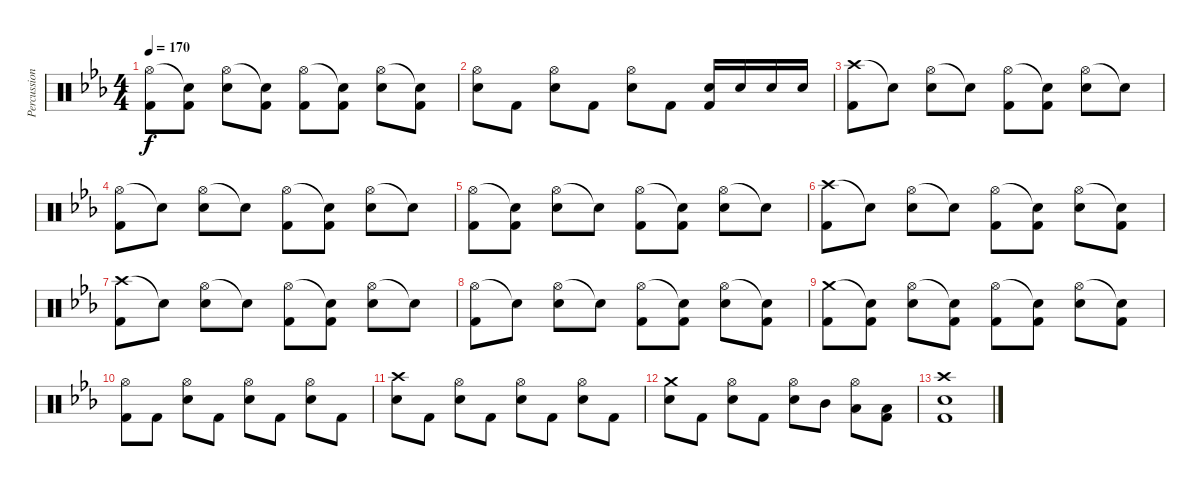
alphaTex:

\track ("Percussion" "Percussion") {instrument percussion}
\staff {score}
\articulation defaults
\ts (4 4)
\tempo 170
\clef neutral
\ks cminor
("Hi-Hat (open)" "Kick (hit) 2").8{dy f} ("Snare (hit)"{t} "Kick (hit) 2").8 ("Hi-Hat (open)" "Electric Snare (hit)").8 ("Snare (hit)"{t} "Kick (hit) 2").8 ("Hi-Hat (open)" "Kick (hit) 2").8 ("Snare (hit)"{t} "Kick (hit) 2").8 ("Hi-Hat (open)" "Electric Snare (hit)").8 ("Snare (hit)"{t} "Kick (hit) 2").8 |
("Hi-Hat (open)" "Electric Snare (hit)").8 "Kick (hit) 2".8 ("Hi-Hat (open)" "Electric Snare (hit)").8 "Kick (hit) 2".8 ("Hi-Hat (open)" "Electric Snare (hit)").8 "Kick (hit) 2".8 ("Electric Snare (hit)" "Kick (hit) 2").16 "Electric Snare (hit)".16 "Electric Snare (hit)".16 "Electric Snare (hit)".16 |
("Crash high (hit)" "Kick (hit) 2").8 "Snare (hit)"{t}.8 ("Hi-Hat (open)" "Electric Snare (hit)").8 "Snare (hit)"{t}.8 ("Hi-Hat (open)" "Kick (hit) 2").8 ("Snare (hit)"{t} "Kick (hit) 2").8 ("Hi-Hat (open)" "Electric Snare (hit)").8 "Snare (hit)"{t}.8 |
("Hi-Hat (open)" "Kick (hit) 2").8 "Snare (hit)"{t}.8 ("Hi-Hat (open)" "Electric Snare (hit)").8 "Snare (hit)"{t}.8 ("Hi-Hat (open)" "Kick (hit) 2").8 ("Snare (hit)"{t} "Kick (hit) 2").8 ("Hi-Hat (open)" "Electric Snare (hit)").8 "Snare (hit)"{t}.8 |
("Hi-Hat (open)" "Kick (hit) 2").8 ("Snare (hit)"{t} "Kick (hit) 2").8 ("Hi-Hat (open)" "Electric Snare (hit)").8 "Snare (hit)"{t}.8 ("Hi-Hat (open)" "Kick (hit) 2").8 ("Snare (hit)"{t} "Kick (hit) 2").8 ("Hi-Hat (open)" "Electric Snare (hit)").8 "Snare (hit)"{t}.8 |
("Crash high (hit)" "Kick (hit) 2").8 "Snare (hit)"{t}.8 ("Hi-Hat (open)" "Electric Snare (hit)").8 "Snare (hit)"{t}.8 ("Hi-Hat (open)" "Kick (hit) 2").8 ("Snare (hit)"{t} "Kick (hit) 2").8 ("Hi-Hat (open)" "Electric Snare (hit)").8 ("Snare (hit)"{t} "Kick (hit) 2").8 |
("Crash high (hit)" "Kick (hit) 2").8 "Snare (hit)"{t}.8 ("Hi-Hat (open)" "Electric Snare (hit)").8 "Snare (hit)"{t}.8 ("Hi-Hat (open)" "Kick (hit) 2").8 ("Snare (hit)"{t} "Kick (hit) 2").8 ("Hi-Hat (open)" "Electric Snare (hit)").8 "Snare (hit)"{t}.8 |
("Hi-Hat (open)" "Kick (hit) 2").8 "Snare (hit)"{t}.8 ("Hi-Hat (open)" "Electric Snare (hit)").8 "Snare (hit)"{t}.8 ("Hi-Hat (open)" "Kick (hit) 2").8 ("Snare (hit)"{t} "Kick (hit) 2").8 ("Hi-Hat (open)" "Electric Snare (hit)").8 ("Snare (hit)"{t} "Kick (hit) 2").8 |
("Crash medium (hit)" "Kick (hit) 2").8 ("Snare (hit)"{t} "Kick (hit) 2").8 ("Hi-Hat (open)" "Electric Snare (hit)").8 ("Snare (hit)"{t} "Kick (hit) 2").8 ("Hi-Hat (open)" "Kick (hit) 2").8 ("Snare (hit)"{t} "Kick (hit) 2").8 ("Hi-Hat (open)" "Electric Snare (hit)").8 ("Snare (hit)"{t} "Kick (hit) 2").8 |
("Hi-Hat (open)" "Kick (hit) 2").8 "Kick (hit) 2".8 ("Hi-Hat (open)" "Electric Snare (hit)").8 "Kick (hit) 2".8 ("Hi-Hat (open)" "Electric Snare (hit)").8 "Kick (hit) 2".8 ("Hi-Hat (open)" "Electric Snare (hit)").8 "Kick (hit) 2".8 |
("Crash high (hit)" "Electric Snare (hit)").8 "Kick (hit) 2".8 ("Hi-Hat (open)" "Electric Snare (hit)").8 "Kick (hit) 2".8 ("Hi-Hat (open)" "Electric Snare (hit)").8 "Kick (hit) 2".8 ("Hi-Hat (open)" "Electric Snare (hit)").8 "Kick (hit) 2".8 |
("Crash medium (hit)" "Electric Snare (hit)").8 "Kick (hit) 2".8 ("Hi-Hat (open)" "Electric Snare (hit)").8 "Kick (hit) 2".8 ("Hi-Hat (open)" "Electric Snare (hit)").8 "Mid Tom (hit)".8 ("Hi-Hat (open)" "Low Tom (hit)").8 ("Low Floor Tom (hit)" "Kick (hit) 2").8 |
("Crash high (hit)" "Electric Snare (hit)" "Kick (hit) 2").1
